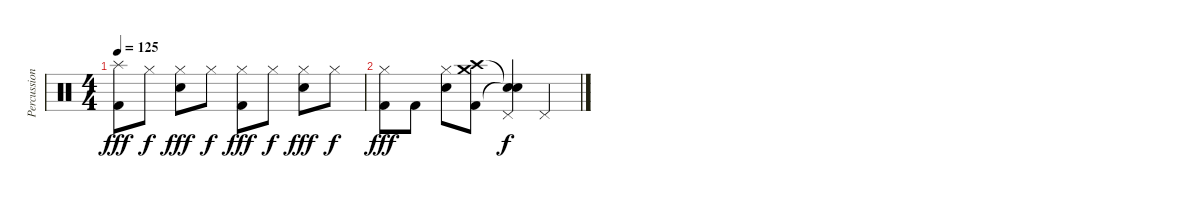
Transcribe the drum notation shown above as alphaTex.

\track ("Percussions" "Percussion") {instrument percussion}
\staff {score}
\articulation defaults
\ts (4 4)
\tempo 125
\clef neutral
\ks c
("Splash (hit)" "Kick (hit) 2").8{dy fff} "Hi-Hat (closed)".8{dy f} ("Hi-Hat (closed)" "Electric Snare (hit)").8{dy fff} "Hi-Hat (closed)".8{dy f} ("Hi-Hat (closed)" "Kick (hit) 2").8{dy fff} "Hi-Hat (closed)".8{dy f} ("Hi-Hat (closed)" "Electric Snare (hit)").8{dy fff} "Hi-Hat (closed)".8{dy f} |
("Hi-Hat (closed)" "Kick (hit) 2").8{dy fff} "Kick (hit) 2".8 ("Hi-Hat (closed)" "Electric Snare (hit)").8 ("Crash high (hit)" "Crash medium (hit)" "Kick (hit) 2").8 ("Snare (hit)"{t} "Pedal Hi-Hat (hit)" "Snare (hit)"{t}).4{dy f} "Pedal Hi-Hat (hit)".4
